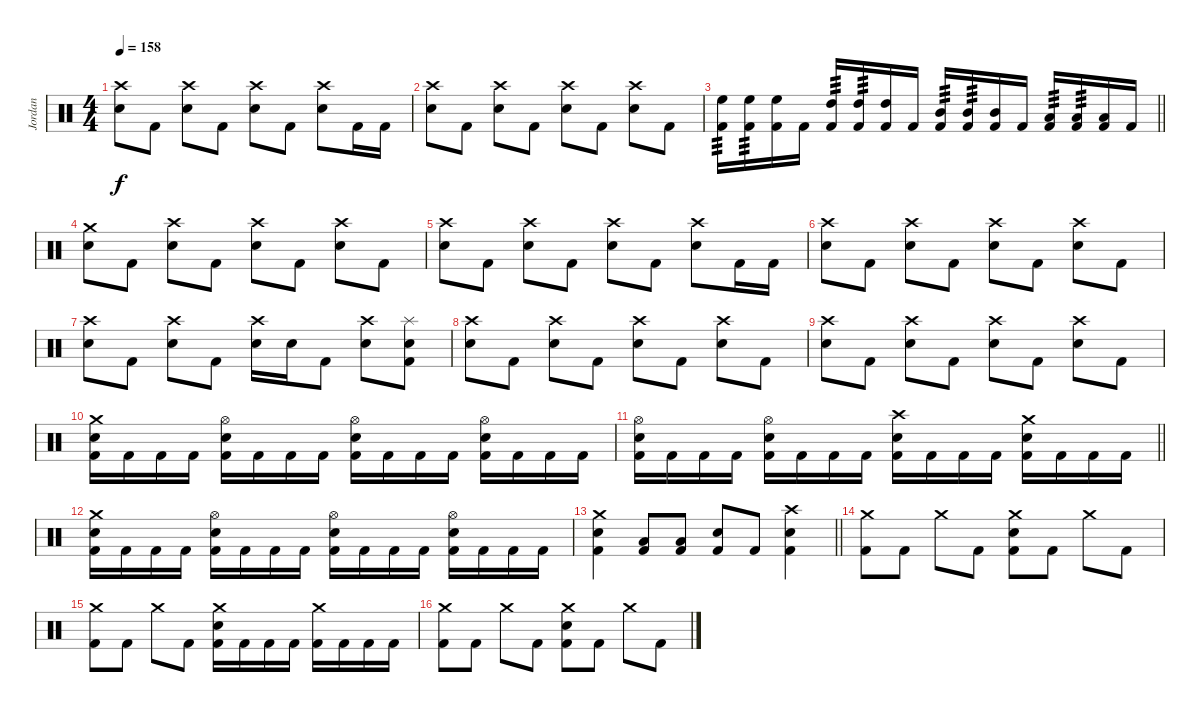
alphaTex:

\track ("Jordan" "Jordan") {instrument percussion}
\staff {score}
\articulation defaults
\ts (4 4)
\tempo 158
\clef neutral
\ks c
("Crash high (hit)" "Electric Snare (hit)").8{dy f} "Kick (hit) 2".8 ("Crash high (hit)" "Electric Snare (hit)").8 "Kick (hit) 2".8 ("Crash high (hit)" "Electric Snare (hit)").8 "Kick (hit) 2".8 ("Crash high (hit)" "Electric Snare (hit)").8 "Kick (hit) 2".16 "Kick (hit) 2".16 |
("Crash high (hit)" "Electric Snare (hit)").8 "Kick (hit) 2".8 ("Crash high (hit)" "Electric Snare (hit)").8 "Kick (hit) 2".8 ("Crash high (hit)" "Electric Snare (hit)").8 "Kick (hit) 2".8 ("Crash high (hit)" "Electric Snare (hit)").8 "Kick (hit) 2".8 |
\barLineRight lightlight
("High Floor Tom (hit)" "Kick (hit) 2").16{tp 3} ("High Floor Tom (hit)" "Kick (hit) 2").16{tp 3} ("High Floor Tom (hit)" "Kick (hit) 2").16 "Kick (hit) 2".16 ("High Tom (hit)" "Kick (hit) 2").16{tp 3} ("High Tom (hit)" "Kick (hit) 2").16{tp 3} ("High Tom (hit)" "Kick (hit) 2").16 "Kick (hit) 2".16 ("Mid Tom (hit)" "Kick (hit) 2").16{tp 3} ("Mid Tom (hit)" "Kick (hit) 2").16{tp 3} ("Mid Tom (hit)" "Kick (hit) 2").16 "Kick (hit) 2".16 ("Low Tom (hit)" "Kick (hit) 2").16{tp 3} ("Low Tom (hit)" "Kick (hit) 2").16{tp 3} ("Low Tom (hit)" "Kick (hit) 2").16 "Kick (hit) 2".16 |
("Crash medium (hit)" "Electric Snare (hit)").8 "Kick (hit) 2".8 ("Crash high (hit)" "Electric Snare (hit)").8 "Kick (hit) 2".8 ("Crash high (hit)" "Electric Snare (hit)").8 "Kick (hit) 2".8 ("Crash high (hit)" "Electric Snare (hit)").8 "Kick (hit) 2".8 |
("Crash high (hit)" "Electric Snare (hit)").8 "Kick (hit) 2".8 ("Crash high (hit)" "Electric Snare (hit)").8 "Kick (hit) 2".8 ("Crash high (hit)" "Electric Snare (hit)").8 "Kick (hit) 2".8 ("Crash high (hit)" "Electric Snare (hit)").8 "Kick (hit) 2".16 "Kick (hit) 2".16 |
("Crash high (hit)" "Electric Snare (hit)").8 "Kick (hit) 2".8 ("Crash high (hit)" "Electric Snare (hit)").8 "Kick (hit) 2".8 ("Crash high (hit)" "Electric Snare (hit)").8 "Kick (hit) 2".8 ("Crash high (hit)" "Electric Snare (hit)").8 "Kick (hit) 2".8 |
("Crash high (hit)" "Electric Snare (hit)").8 "Kick (hit) 2".8 ("Crash high (hit)" "Electric Snare (hit)").8 "Kick (hit) 2".8 ("Crash high (hit)" "Electric Snare (hit)").16 "Electric Snare (hit)".16 "Kick (hit) 2".8 ("Crash high (hit)" "Electric Snare (hit)").8 ("Splash (hit)" "Electric Snare (hit)" "Kick (hit) 2").8 |
("Crash high (hit)" "Electric Snare (hit)").8 "Kick (hit) 2".8 ("Crash high (hit)" "Electric Snare (hit)").8 "Kick (hit) 2".8 ("Crash high (hit)" "Electric Snare (hit)").8 "Kick (hit) 2".8 ("Crash high (hit)" "Electric Snare (hit)").8 "Kick (hit) 2".8 |
("Crash high (hit)" "Electric Snare (hit)").8 "Kick (hit) 2".8 ("Crash high (hit)" "Electric Snare (hit)").8 "Kick (hit) 2".8 ("Crash high (hit)" "Electric Snare (hit)").8 "Kick (hit) 2".8 ("Crash high (hit)" "Electric Snare (hit)").8 "Kick (hit) 2".8 |
("Crash medium (hit)" "Electric Snare (hit)" "Kick (hit) 2").16 "Kick (hit) 2".16 "Kick (hit) 2".16 "Kick (hit) 2".16 ("Hi-Hat (open)" "Electric Snare (hit)" "Kick (hit) 2").16 "Kick (hit) 2".16 "Kick (hit) 2".16 "Kick (hit) 2".16 ("Hi-Hat (open)" "Electric Snare (hit)" "Kick (hit) 2").16 "Kick (hit) 2".16 "Kick (hit) 2".16 "Kick (hit) 2".16 ("Hi-Hat (open)" "Electric Snare (hit)" "Kick (hit) 2").16 "Kick (hit) 2".16 "Kick (hit) 2".16 "Kick (hit) 2".16 |
\barLineRight lightlight
("Hi-Hat (open)" "Electric Snare (hit)" "Kick (hit) 2").16 "Kick (hit) 2".16 "Kick (hit) 2".16 "Kick (hit) 2".16 ("Hi-Hat (open)" "Electric Snare (hit)" "Kick (hit) 2").16 "Kick (hit) 2".16 "Kick (hit) 2".16 "Kick (hit) 2".16 ("Crash high (hit)" "Electric Snare (hit)" "Kick (hit) 2").16 "Kick (hit) 2".16 "Kick (hit) 2".16 "Kick (hit) 2".16 ("Crash medium (hit)" "Electric Snare (hit)" "Kick (hit) 2").16 "Kick (hit) 2".16 "Kick (hit) 2".16 "Kick (hit) 2".16 |
("Crash medium (hit)" "Electric Snare (hit)" "Kick (hit) 2").16 "Kick (hit) 2".16 "Kick (hit) 2".16 "Kick (hit) 2".16 ("Hi-Hat (open)" "Electric Snare (hit)" "Kick (hit) 2").16 "Kick (hit) 2".16 "Kick (hit) 2".16 "Kick (hit) 2".16 ("Hi-Hat (open)" "Electric Snare (hit)" "Kick (hit) 2").16 "Kick (hit) 2".16 "Kick (hit) 2".16 "Kick (hit) 2".16 ("Hi-Hat (open)" "Electric Snare (hit)" "Kick (hit) 2").16 "Kick (hit) 2".16 "Kick (hit) 2".16 "Kick (hit) 2".16 |
\barLineRight lightlight
("Crash medium (hit)" "Electric Snare (hit)" "Kick (hit) 2").4 ("Low Tom (hit)" "Kick (hit) 2").8 ("Low Tom (hit)" "Kick (hit) 2").8 ("Electric Snare (hit)" "Kick (hit) 2").8 "Kick (hit) 2".8 ("Crash high (hit)" "Electric Snare (hit)" "Kick (hit) 2").4 |
("Crash medium (hit)" "Kick (hit) 2").8 "Kick (hit) 2".8 "Crash medium (hit)".8 "Kick (hit) 2".8 ("Crash medium (hit)" "Electric Snare (hit)" "Kick (hit) 2").8 "Kick (hit) 2".8 "Crash medium (hit)".8 "Kick (hit) 2".8 |
("Crash medium (hit)" "Kick (hit) 2").8 "Kick (hit) 2".8 "Crash medium (hit)".8 "Kick (hit) 2".8 ("Crash medium (hit)" "Electric Snare (hit)" "Kick (hit) 2").16 "Kick (hit) 2".16 "Kick (hit) 2".16 "Kick (hit) 2".16 ("Crash medium (hit)" "Kick (hit) 2").16 "Kick (hit) 2".16 "Kick (hit) 2".16 "Kick (hit) 2".16 |
("Crash medium (hit)" "Kick (hit) 2").8 "Kick (hit) 2".8 "Crash medium (hit)".8 "Kick (hit) 2".8 ("Crash medium (hit)" "Electric Snare (hit)" "Kick (hit) 2").8 "Kick (hit) 2".8 "Crash medium (hit)".8 "Kick (hit) 2".8
